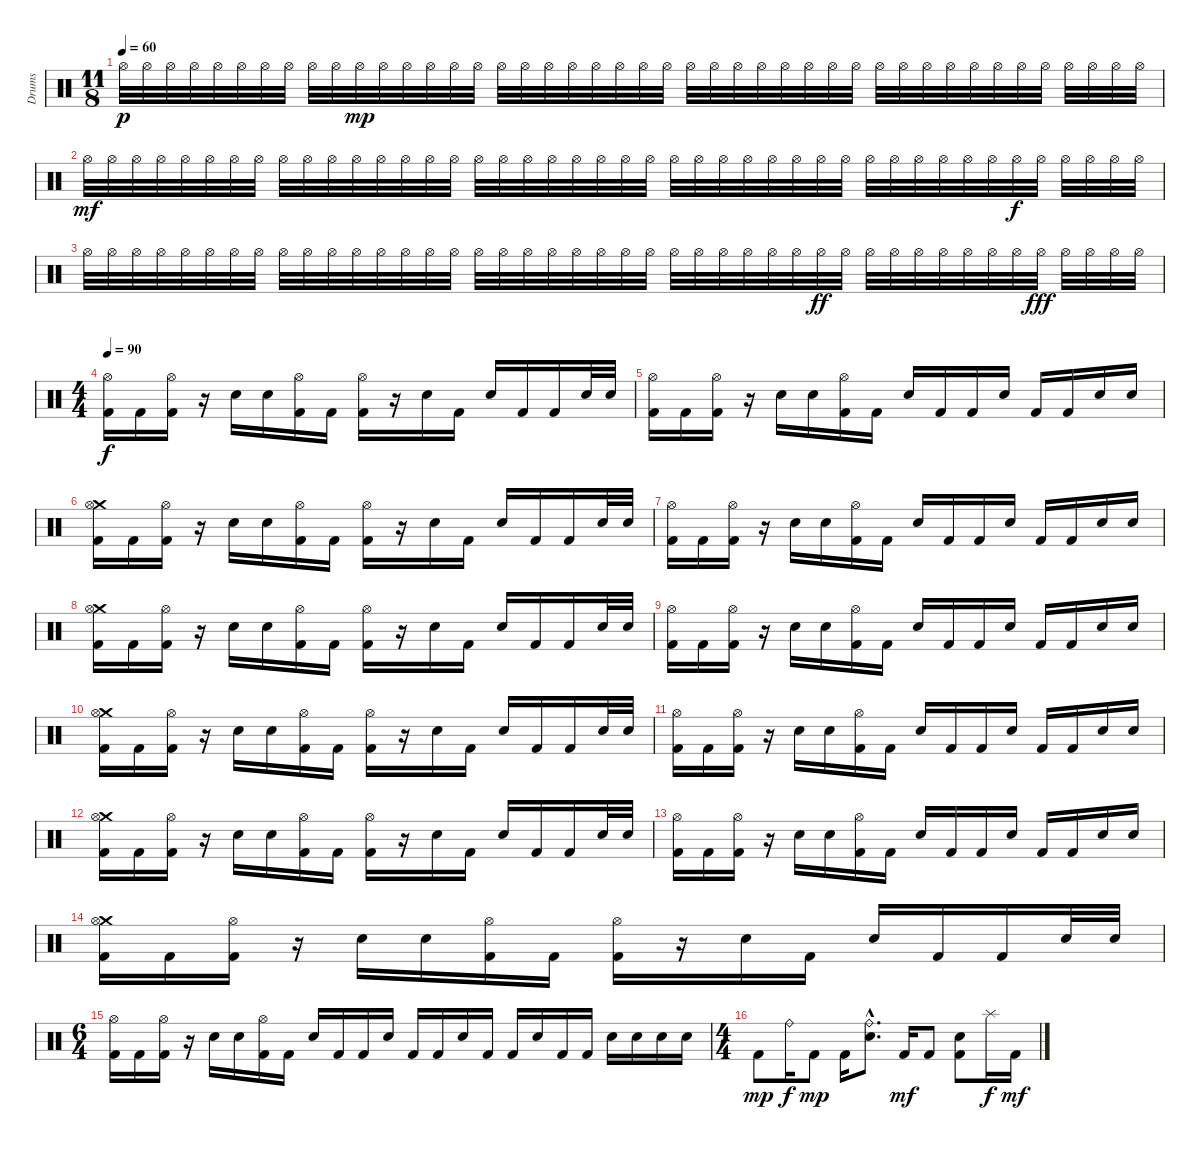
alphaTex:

\track ("Drums" "Drums") {instrument percussion}
\staff {score}
\articulation defaults
\ts (11 8)
\tempo 60
\clef neutral
\ks c "Hi-Hat (open)".32{dy p} "Hi-Hat (open)".32 "Hi-Hat (open)".32 "Hi-Hat (open)".32 "Hi-Hat (open)".32 "Hi-Hat (open)".32 "Hi-Hat (open)".32 "Hi-Hat (open)".32 "Hi-Hat (open)".32 "Hi-Hat (open)".32 "Hi-Hat (open)".32{dy mp} "Hi-Hat (open)".32 "Hi-Hat (open)".32 "Hi-Hat (open)".32 "Hi-Hat (open)".32 "Hi-Hat (open)".32 "Hi-Hat (open)".32 "Hi-Hat (open)".32 "Hi-Hat (open)".32 "Hi-Hat (open)".32 "Hi-Hat (open)".32 "Hi-Hat (open)".32 "Hi-Hat (open)".32 "Hi-Hat (open)".32 "Hi-Hat (open)".32 "Hi-Hat (open)".32 "Hi-Hat (open)".32 "Hi-Hat (open)".32 "Hi-Hat (open)".32 "Hi-Hat (open)".32 "Hi-Hat (open)".32 "Hi-Hat (open)".32 "Hi-Hat (open)".32 "Hi-Hat (open)".32 "Hi-Hat (open)".32 "Hi-Hat (open)".32 "Hi-Hat (open)".32 "Hi-Hat (open)".32 "Hi-Hat (open)".32 "Hi-Hat (open)".32 "Hi-Hat (open)".32 "Hi-Hat (open)".32 "Hi-Hat (open)".32 "Hi-Hat (open)".32
|
"Hi-Hat (open)".32{dy mf} "Hi-Hat (open)".32 "Hi-Hat (open)".32 "Hi-Hat (open)".32 "Hi-Hat (open)".32 "Hi-Hat (open)".32 "Hi-Hat (open)".32 "Hi-Hat (open)".32 "Hi-Hat (open)".32 "Hi-Hat (open)".32 "Hi-Hat (open)".32 "Hi-Hat (open)".32 "Hi-Hat (open)".32 "Hi-Hat (open)".32 "Hi-Hat (open)".32 "Hi-Hat (open)".32 "Hi-Hat (open)".32 "Hi-Hat (open)".32 "Hi-Hat (open)".32 "Hi-Hat (open)".32 "Hi-Hat (open)".32 "Hi-Hat (open)".32 "Hi-Hat (open)".32 "Hi-Hat (open)".32 "Hi-Hat (open)".32 "Hi-Hat (open)".32 "Hi-Hat (open)".32 "Hi-Hat (open)".32 "Hi-Hat (open)".32 "Hi-Hat (open)".32 "Hi-Hat (open)".32 "Hi-Hat (open)".32 "Hi-Hat (open)".32 "Hi-Hat (open)".32 "Hi-Hat (open)".32 "Hi-Hat (open)".32 "Hi-Hat (open)".32 "Hi-Hat (open)".32 "Hi-Hat (open)".32{dy f} "Hi-Hat (open)".32 "Hi-Hat (open)".32 "Hi-Hat (open)".32 "Hi-Hat (open)".32 "Hi-Hat (open)".32 |
"Hi-Hat (open)".32 "Hi-Hat (open)".32 "Hi-Hat (open)".32 "Hi-Hat (open)".32 "Hi-Hat (open)".32 "Hi-Hat (open)".32 "Hi-Hat (open)".32 "Hi-Hat (open)".32 "Hi-Hat (open)".32 "Hi-Hat (open)".32 "Hi-Hat (open)".32 "Hi-Hat (open)".32 "Hi-Hat (open)".32 "Hi-Hat (open)".32 "Hi-Hat (open)".32 "Hi-Hat (open)".32 "Hi-Hat (open)".32 "Hi-Hat (open)".32 "Hi-Hat (open)".32 "Hi-Hat (open)".32 "Hi-Hat (open)".32 "Hi-Hat (open)".32 "Hi-Hat (open)".32 "Hi-Hat (open)".32 "Hi-Hat (open)".32 "Hi-Hat (open)".32 "Hi-Hat (open)".32 "Hi-Hat (open)".32 "Hi-Hat (open)".32 "Hi-Hat (open)".32 "Hi-Hat (open)".32{dy ff} "Hi-Hat (open)".32 "Hi-Hat (open)".32 "Hi-Hat (open)".32 "Hi-Hat (open)".32 "Hi-Hat (open)".32 "Hi-Hat (open)".32 "Hi-Hat (open)".32 "Hi-Hat (open)".32 "Hi-Hat (open)".32{dy fff} "Hi-Hat (open)".32 "Hi-Hat (open)".32 "Hi-Hat (open)".32 "Hi-Hat (open)".32 |
\ts (4 4)
\tempo 90
("Hi-Hat (open)" "Kick (hit) 2").16{dy f} "Kick (hit) 2".16 ("Hi-Hat (open)" "Kick (hit) 2").16 r.16 "Electric Snare (hit)".16 "Electric Snare (hit)".16 ("Hi-Hat (open)" "Kick (hit) 2").16 "Kick (hit) 2".16 ("Hi-Hat (open)" "Kick (hit) 2").16 r.16 "Electric Snare (hit)".16 "Kick (hit) 2".16 "Electric Snare (hit)".16 "Kick (hit) 2".16 "Kick (hit) 2".16 "Electric Snare (hit)".32 "Electric Snare (hit)".32 |
("Hi-Hat (open)" "Kick (hit) 2").16 "Kick (hit) 2".16 ("Hi-Hat (open)" "Kick (hit) 2").16 r.16 "Electric Snare (hit)".16 "Electric Snare (hit)".16 ("Hi-Hat (open)" "Kick (hit) 2").16 "Kick (hit) 2".16 "Electric Snare (hit)".16 "Kick (hit) 2".16 "Kick (hit) 2".16 "Electric Snare (hit)".16 "Kick (hit) 2".16 "Kick (hit) 2".16 "Electric Snare (hit)".16 "Snare (hit) 2".16 |
("Crash medium (hit)" "Hi-Hat (open)" "Kick (hit) 2").16 "Kick (hit) 2".16 ("Hi-Hat (open)" "Kick (hit) 2").16 r.16 "Electric Snare (hit)".16 "Electric Snare (hit)".16 ("Hi-Hat (open)" "Kick (hit) 2").16 "Kick (hit) 2".16 ("Hi-Hat (open)" "Kick (hit) 2").16 r.16 "Electric Snare (hit)".16 "Kick (hit) 2".16 "Electric Snare (hit)".16 "Kick (hit) 2".16 "Kick (hit) 2".16 "Electric Snare (hit)".32 "Electric Snare (hit)".32 |
("Hi-Hat (open)" "Kick (hit) 2").16 "Kick (hit) 2".16 ("Hi-Hat (open)" "Kick (hit) 2").16 r.16 "Electric Snare (hit)".16 "Electric Snare (hit)".16 ("Hi-Hat (open)" "Kick (hit) 2").16 "Kick (hit) 2".16 "Electric Snare (hit)".16 "Kick (hit) 2".16 "Kick (hit) 2".16 "Electric Snare (hit)".16 "Kick (hit) 2".16 "Kick (hit) 2".16 "Electric Snare (hit)".16 "Snare (hit) 2".16 |
("Crash medium (hit)" "Hi-Hat (open)" "Kick (hit) 2").16 "Kick (hit) 2".16 ("Hi-Hat (open)" "Kick (hit) 2").16 r.16 "Electric Snare (hit)".16 "Electric Snare (hit)".16 ("Hi-Hat (open)" "Kick (hit) 2").16 "Kick (hit) 2".16 ("Hi-Hat (open)" "Kick (hit) 2").16 r.16 "Electric Snare (hit)".16 "Kick (hit) 2".16 "Electric Snare (hit)".16 "Kick (hit) 2".16 "Kick (hit) 2".16 "Electric Snare (hit)".32 "Electric Snare (hit)".32 |
("Hi-Hat (open)" "Kick (hit) 2").16 "Kick (hit) 2".16 ("Hi-Hat (open)" "Kick (hit) 2").16 r.16 "Electric Snare (hit)".16 "Electric Snare (hit)".16 ("Hi-Hat (open)" "Kick (hit) 2").16 "Kick (hit) 2".16 "Electric Snare (hit)".16 "Kick (hit) 2".16 "Kick (hit) 2".16 "Electric Snare (hit)".16 "Kick (hit) 2".16 "Kick (hit) 2".16 "Electric Snare (hit)".16 "Snare (hit) 2".16 |
("Crash medium (hit)" "Hi-Hat (open)" "Kick (hit) 2").16 "Kick (hit) 2".16 ("Hi-Hat (open)" "Kick (hit) 2").16 r.16 "Electric Snare (hit)".16 "Electric Snare (hit)".16 ("Hi-Hat (open)" "Kick (hit) 2").16 "Kick (hit) 2".16 ("Hi-Hat (open)" "Kick (hit) 2").16 r.16 "Electric Snare (hit)".16 "Kick (hit) 2".16 "Electric Snare (hit)".16 "Kick (hit) 2".16 "Kick (hit) 2".16 "Electric Snare (hit)".32 "Electric Snare (hit)".32 |
("Hi-Hat (open)" "Kick (hit) 2").16 "Kick (hit) 2".16 ("Hi-Hat (open)" "Kick (hit) 2").16 r.16 "Electric Snare (hit)".16 "Electric Snare (hit)".16 ("Hi-Hat (open)" "Kick (hit) 2").16 "Kick (hit) 2".16 "Electric Snare (hit)".16 "Kick (hit) 2".16 "Kick (hit) 2".16 "Electric Snare (hit)".16 "Kick (hit) 2".16 "Kick (hit) 2".16 "Electric Snare (hit)".16 "Snare (hit) 2".16 |
("Crash medium (hit)" "Hi-Hat (open)" "Kick (hit) 2").16 "Kick (hit) 2".16 ("Hi-Hat (open)" "Kick (hit) 2").16 r.16 "Electric Snare (hit)".16 "Electric Snare (hit)".16 ("Hi-Hat (open)" "Kick (hit) 2").16 "Kick (hit) 2".16 ("Hi-Hat (open)" "Kick (hit) 2").16 r.16 "Electric Snare (hit)".16 "Kick (hit) 2".16 "Electric Snare (hit)".16 "Kick (hit) 2".16 "Kick (hit) 2".16 "Electric Snare (hit)".32 "Electric Snare (hit)".32 |
("Hi-Hat (open)" "Kick (hit) 2").16 "Kick (hit) 2".16 ("Hi-Hat (open)" "Kick (hit) 2").16 r.16 "Electric Snare (hit)".16 "Electric Snare (hit)".16 ("Hi-Hat (open)" "Kick (hit) 2").16 "Kick (hit) 2".16 "Electric Snare (hit)".16 "Kick (hit) 2".16 "Kick (hit) 2".16 "Electric Snare (hit)".16 "Kick (hit) 2".16 "Kick (hit) 2".16 "Electric Snare (hit)".16 "Snare (hit) 2".16 |
("Crash medium (hit)" "Hi-Hat (open)" "Kick (hit) 2").16 "Kick (hit) 2".16 ("Hi-Hat (open)" "Kick (hit) 2").16 r.16 "Electric Snare (hit)".16 "Electric Snare (hit)".16 ("Hi-Hat (open)" "Kick (hit) 2").16 "Kick (hit) 2".16 ("Hi-Hat (open)" "Kick (hit) 2").16 r.16 "Electric Snare (hit)".16 "Kick (hit) 2".16 "Electric Snare (hit)".16 "Kick (hit) 2".16 "Kick (hit) 2".16 "Electric Snare (hit)".32 "Electric Snare (hit)".32 |
\ts (6 4)
("Hi-Hat (open)" "Kick (hit) 2").16 "Kick (hit) 2".16 ("Hi-Hat (open)" "Kick (hit) 2").16 r.16 "Electric Snare (hit)".16 "Electric Snare (hit)".16 ("Hi-Hat (open)" "Kick (hit) 2").16 "Kick (hit) 2".16 "Electric Snare (hit)".16 "Kick (hit) 2".16 "Kick (hit) 2".16 "Electric Snare (hit)".16 "Kick (hit) 2".16 "Kick (hit) 2".16 "Electric Snare (hit)".16 "Kick (hit) 2".16 "Kick (hit) 2".16 "Electric Snare (hit)".16 "Kick (hit) 2".16 "Kick (hit) 2".16 "Electric Snare (hit)".16 "Snare (hit) 2".16 "Electric Snare (hit)".16 "Electric Snare (hit)".16 |
\ts (4 4)
"Kick (hit) 2".8{dy mp} "Ride (bell)".16{dy f} "Kick (hit) 2".8{dy mp} "Kick (hit) 2".16 ("Ride (bell)"{hac} "Snare (hit) 2"{hac}).8{d} "Kick (hit) 2".16{dy mf} "Kick (hit) 2".8 ("Snare (hit) 2" "Kick (hit) 2").8 "Splash (hit)".16{dy f} "Kick (hit) 2".16{dy mf}
